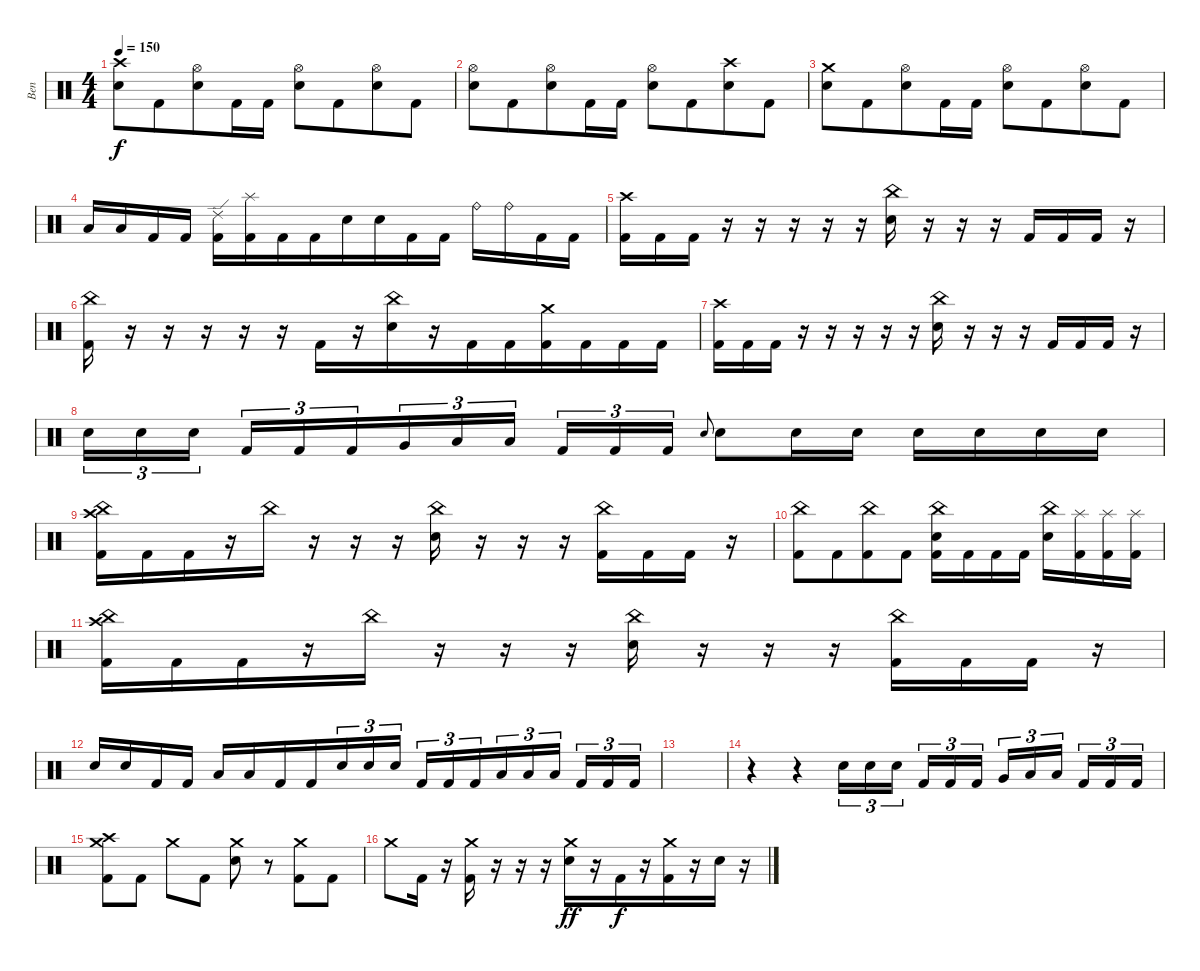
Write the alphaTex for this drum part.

\track ("Ben" "Ben") {instrument percussion}
\staff {score}
\articulation defaults
\ts (4 4)
\tempo 150
\clef neutral
\ks c
("Crash high (hit)" "Electric Snare (hit)").8{dy f beam merge} "Kick (hit) 2".8{beam merge} ("Hi-Hat (open)" "Electric Snare (hit)").8{beam merge} "Kick (hit) 2".16{beam merge} "Kick (hit) 2".16 ("Hi-Hat (open)" "Electric Snare (hit)").8{beam merge} "Kick (hit) 2".8{beam merge} ("Hi-Hat (open)" "Electric Snare (hit)").8{beam merge} "Kick (hit) 2".8 |
("Hi-Hat (open)" "Electric Snare (hit)").8{beam merge} "Kick (hit) 2".8{beam merge} ("Hi-Hat (open)" "Electric Snare (hit)").8{beam merge} "Kick (hit) 2".16{beam merge} "Kick (hit) 2".16 ("Hi-Hat (open)" "Electric Snare (hit)").8{beam merge} "Kick (hit) 2".8{beam merge} ("Crash high (hit)" "Electric Snare (hit)").8{beam merge} "Kick (hit) 2".8 |
("Crash medium (hit)" "Electric Snare (hit)").8{beam merge} "Kick (hit) 2".8{beam merge} ("Hi-Hat (open)" "Electric Snare (hit)").8{beam merge} "Kick (hit) 2".16{beam merge} "Kick (hit) 2".16 ("Hi-Hat (open)" "Electric Snare (hit)").8{beam merge} "Kick (hit) 2".8{beam merge} ("Hi-Hat (open)" "Electric Snare (hit)").8{beam merge} "Kick (hit) 2".8 |
"Low Tom (hit)".16{beam merge} "Low Tom (hit)".16{beam merge} "Kick (hit) 2".16{beam merge} "Kick (hit) 2".16 ("Kick (hit) 2" "Ride (edge) 2").16{beam merge} ("Kick (hit) 2" "Splash (hit)").16{beam merge} "Kick (hit) 2".16{beam merge} "Kick (hit) 2".16{beam merge} "Electric Snare (hit)".16 "Electric Snare (hit)".16{beam merge} "Kick (hit) 2".16{beam merge} "Kick (hit) 2".16 "Ride (bell)".16{beam merge} "Ride (bell)".16 "Kick (hit) 2".16{beam merge} "Kick (hit) 2".16 |
("Kick (hit) 2" "Crash high (hit)").16 "Kick (hit) 2".16{beam merge} "Kick (hit) 2".16 r.16 r.16 r.16{beam merge} r.16{beam merge} r.16{beam merge} ("China (hit)" "Electric Snare (hit)").16 r.16 r.16{beam merge} r.16{beam merge} "Kick (hit) 2".16{beam merge} "Kick (hit) 2".16 "Kick (hit) 2".16 r.16 |
("China (hit)" "Kick (hit) 2").16 r.16 r.16{beam merge} r.16 r.16 r.16{beam merge} "Kick (hit) 2".16{beam merge} r.16 ("China (hit)" "Electric Snare (hit)").16 r.16 "Kick (hit) 2".16{beam merge} "Kick (hit) 2".16{beam merge} ("Crash medium (hit)" "Kick (hit) 2").16 "Kick (hit) 2".16 "Kick (hit) 2".16 "Kick (hit) 2".16 |
("Kick (hit) 2" "Crash high (hit)").16 "Kick (hit) 2".16{beam merge} "Kick (hit) 2".16 r.16 r.16 r.16{beam merge} r.16{beam merge} r.16{beam merge} ("China (hit)" "Electric Snare (hit)").16 r.16 r.16{beam merge} r.16{beam merge} "Kick (hit) 2".16{beam merge} "Kick (hit) 2".16 "Kick (hit) 2".16 r.16 |
"Electric Snare (hit)".16{tu (3 2) beam merge} "Electric Snare (hit)".16{tu (3 2) beam merge} "Electric Snare (hit)".16{tu (3 2) beam splitsecondary} "Kick (hit) 2".16{tu (3 2) beam merge} "Kick (hit) 2".16{tu (3 2) beam merge} "Kick (hit) 2".16{tu (3 2) beam merge} "Very Low Tom (hit)".16{tu (3 2)} "Low Floor Tom (hit)".16{tu (3 2) beam merge} "Low Floor Tom (hit)".16{tu (3 2) beam splitsecondary} "Kick (hit) 2".16{tu (3 2)} "Kick (hit) 2".16{tu (3 2) beam merge} "Kick (hit) 2".16{tu (3 2)} "Electric Snare (hit)".8{gr onbeat} "Electric Snare (hit)".8 "Electric Snare (hit)".16 "Electric Snare (hit)".16 "Electric Snare (hit)".16 "Electric Snare (hit)".16 "Electric Snare (hit)".16{beam merge} "Electric Snare (hit)".16 |
("Crash high (hit)" "China (hit)" "Kick (hit) 2").16 "Kick (hit) 2".16 "Kick (hit) 2".16{beam merge} r.16 "China (hit)".16 r.16{beam merge} r.16{beam merge} r.16 ("China (hit)" "Electric Snare (hit)").16 r.16 r.16{beam merge} r.16{beam merge} ("China (hit)" "Kick (hit) 2").16{beam merge} "Kick (hit) 2".16 "Kick (hit) 2".16 r.16 |
("Kick (hit) 2" "China (hit)").8{beam merge} "Kick (hit) 2".8{beam merge} ("Kick (hit) 2" "China (hit)").8{beam merge} "Kick (hit) 2".8 ("Kick (hit) 2" "Electric Snare (hit)" "China (hit)").16 "Kick (hit) 2".16{beam merge} "Kick (hit) 2".16 "Kick (hit) 2".16 ("Electric Snare (hit)" "China (hit)").16{beam merge} ("Kick (hit) 2" "Splash (hit)").16 ("Kick (hit) 2" "Splash (hit)").16{beam merge} ("Kick (hit) 2" "Splash (hit)").16 |
("Crash high (hit)" "China (hit)" "Kick (hit) 2").16 "Kick (hit) 2".16 "Kick (hit) 2".16{beam merge} r.16 "China (hit)".16 r.16{beam merge} r.16{beam merge} r.16 ("China (hit)" "Electric Snare (hit)").16 r.16 r.16{beam merge} r.16{beam merge} ("China (hit)" "Kick (hit) 2").16{beam merge} "Kick (hit) 2".16 "Kick (hit) 2".16 r.16 |
"Electric Snare (hit)".16{beam merge} "Electric Snare (hit)".16{beam merge} "Kick (hit) 2".16{beam merge} "Kick (hit) 2".16 "Low Tom (hit)".16 "Low Tom (hit)".16{beam merge} "Kick (hit) 2".16 "Kick (hit) 2".16{beam merge} "Electric Snare (hit)".16{tu (3 2) beam merge} "Electric Snare (hit)".16{tu (3 2) beam merge} "Electric Snare (hit)".16{tu (3 2) beam splitsecondary} "Kick (hit) 2".16{tu (3 2) beam merge} "Kick (hit) 2".16{tu (3 2) beam merge} "Kick (hit) 2".16{tu (3 2) beam merge} "Low Tom (hit)".16{tu (3 2)} "Low Tom (hit)".16{tu (3 2) beam merge} "Low Tom (hit)".16{tu (3 2) beam splitsecondary} "Kick (hit) 2".16{tu (3 2)} "Kick (hit) 2".16{tu (3 2) beam merge} "Kick (hit) 2".16{tu (3 2)} |
|
r.4 r.4{beam merge} "Electric Snare (hit)".16{tu (3 2) beam merge} "Electric Snare (hit)".16{tu (3 2)} "Electric Snare (hit)".16{tu (3 2) beam splitsecondary} "Kick (hit) 2".16{tu (3 2) beam merge} "Kick (hit) 2".16{tu (3 2)} "Kick (hit) 2".16{tu (3 2)} "Very Low Tom (hit)".16{tu (3 2)} "Low Floor Tom (hit)".16{tu (3 2) beam merge} "Low Floor Tom (hit)".16{tu (3 2) beam splitsecondary} "Kick (hit) 2".16{tu (3 2)} "Kick (hit) 2".16{tu (3 2)} "Kick (hit) 2".16{tu (3 2)} |
("Kick (hit) 2" "Crash high (hit)" "Crash medium (hit)").8 "Kick (hit) 2".8 "Crash medium (hit)".8{beam merge} "Kick (hit) 2".8 ("Electric Snare (hit)" "Crash medium (hit)").8 r.8 ("Kick (hit) 2" "Crash medium (hit)").8{beam merge} "Kick (hit) 2".8 |
"Crash medium (hit)".8 "Kick (hit) 2".16 r.16 ("Crash medium (hit)" "Kick (hit) 2").16 r.16{beam merge} r.16 r.16{beam merge} ("Crash medium (hit)" "Electric Snare (hit)").16{dy ff beam merge} r.16 "Kick (hit) 2".16{dy f beam merge} r.16{beam merge} ("Crash medium (hit)" "Kick (hit) 2").16 r.16 "Electric Snare (hit)".16{beam merge} r.16
